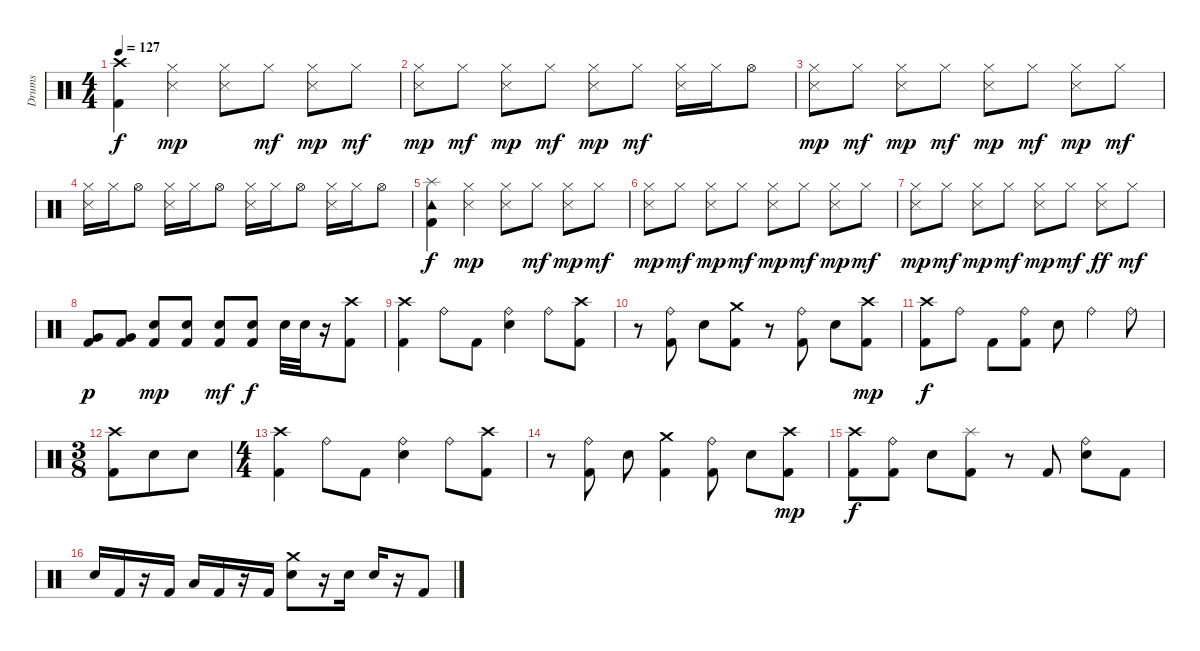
\track ("Drums" "Drums") {instrument percussion}
\staff {score}
\articulation defaults
\ts (4 4)
\tempo 127
\clef neutral
\ks c
("Crash high (hit)" "Kick (hit) 2").4{dy f} ("Snare (side stick) 3" "Hi-Hat (closed)").4{dy mp} ("Snare (side stick) 3" "Hi-Hat (closed)").8 "Hi-Hat (closed)".8{dy mf} ("Snare (side stick) 3" "Hi-Hat (closed)").8{dy mp} "Hi-Hat (closed)".8{dy mf} |
("Hi-Hat (closed)" "Snare (side stick) 3").8{dy mp} "Hi-Hat (closed)".8{dy mf} ("Snare (side stick) 3" "Hi-Hat (closed)").8{dy mp} "Hi-Hat (closed)".8{dy mf} ("Hi-Hat (closed)" "Snare (side stick) 3").8{dy mp} "Hi-Hat (closed)".8{dy mf} ("Snare (side stick) 3" "Hi-Hat (closed)").16 "Hi-Hat (closed)".16 "Hi-Hat (open)".8 |
("Snare (side stick) 3" "Hi-Hat (closed)").8{dy mp} "Hi-Hat (closed)".8{dy mf} ("Snare (side stick) 3" "Hi-Hat (closed)").8{dy mp} "Hi-Hat (closed)".8{dy mf} ("Snare (side stick) 3" "Hi-Hat (closed)").8{dy mp} "Hi-Hat (closed)".8{dy mf} ("Snare (side stick) 3" "Hi-Hat (closed)").8{dy mp} "Hi-Hat (closed)".8{dy mf} |
("Hi-Hat (closed)" "Snare (side stick) 3").16 "Hi-Hat (closed)".16 "Hi-Hat (open)".8 ("Hi-Hat (closed)" "Snare (side stick) 3").16 "Hi-Hat (closed)".16 "Hi-Hat (open)".8 ("Hi-Hat (closed)" "Snare (side stick) 3").16 "Hi-Hat (closed)".16 "Hi-Hat (open)".8 ("Hi-Hat (closed)" "Snare (side stick) 3").16 "Hi-Hat (closed)".16 "Hi-Hat (open)".8 |
("Tambourine (hit)" "Splash (hit)" "Kick (hit) 2").4{dy f} ("Snare (side stick) 3" "Hi-Hat (closed)").4{dy mp} ("Snare (side stick) 3" "Hi-Hat (closed)").8 "Hi-Hat (closed)".8{dy mf} ("Snare (side stick) 3" "Hi-Hat (closed)").8{dy mp} "Hi-Hat (closed)".8{dy mf} |
("Hi-Hat (closed)" "Snare (side stick) 3").8{dy mp} "Hi-Hat (closed)".8{dy mf} ("Snare (side stick) 3" "Hi-Hat (closed)").8{dy mp} "Hi-Hat (closed)".8{dy mf} ("Hi-Hat (closed)" "Snare (side stick) 3").8{dy mp} "Hi-Hat (closed)".8{dy mf} ("Snare (side stick) 3" "Hi-Hat (closed)").8{dy mp} "Hi-Hat (closed)".8{dy mf} |
("Snare (side stick) 3" "Hi-Hat (closed)").8{dy mp} "Hi-Hat (closed)".8{dy mf} ("Snare (side stick) 3" "Hi-Hat (closed)").8{dy mp} "Hi-Hat (closed)".8{dy mf} ("Snare (side stick) 3" "Hi-Hat (closed)").8{dy mp} "Hi-Hat (closed)".8{dy mf} ("Snare (side stick) 3" "Hi-Hat (closed)").8{dy ff} "Hi-Hat (closed)".8{dy mf} |
("Kick (hit) 2" "Very Low Tom (hit)").8{dy p} ("Very Low Tom (hit)" "Kick (hit) 2").8 ("Electric Snare (hit)" "Kick (hit) 2").8{dy mp} ("Electric Snare (hit)" "Kick (hit) 2").8 ("Electric Snare (hit)" "Kick (hit) 2").8{dy mf} ("Electric Snare (hit)" "Kick (hit) 2").8{dy f} "Electric Snare (hit)".32 "Electric Snare (hit)".32 r.16 ("Crash high (hit)" "Kick (hit) 2").8 |
("Kick (hit) 2" "Crash high (hit)").4 "Ride (bell)".8 "Kick (hit) 2".8 ("Ride (bell)" "Electric Snare (hit)").4 "Ride (bell)".8 ("Kick (hit) 2" "Crash high (hit)").8 |
r.8 ("Kick (hit) 2" "Ride (bell)").8 "Electric Snare (hit)".8 ("Kick (hit) 2" "Crash medium (hit)").8 r.8 ("Kick (hit) 2" "Ride (bell)").8 "Electric Snare (hit)".8 ("Kick (hit) 2" "Crash high (hit)").8{dy mp} |
("Crash high (hit)" "Kick (hit) 2").8{dy f} "Ride (bell)".8 "Kick (hit) 2".8 ("Kick (hit) 2" "Ride (bell)").8 "Electric Snare (hit)".8 "Ride (bell)".4 "Ride (bell)".8 |
\ts (3 8)
("Crash high (hit)" "Kick (hit) 2").8 "Electric Snare (hit)".8 "Electric Snare (hit)".8 |
\ts (4 4)
("Crash high (hit)" "Kick (hit) 2").4 "Ride (bell)".8 "Kick (hit) 2".8 ("Ride (bell)" "Electric Snare (hit)").4 "Ride (bell)".8 ("Kick (hit) 2" "Crash high (hit)").8 |
r.8 ("Kick (hit) 2" "Ride (bell)").8 "Electric Snare (hit)".8 ("Kick (hit) 2" "Crash medium (hit)").4 ("Kick (hit) 2" "Ride (bell)").8 "Electric Snare (hit)".8 ("Kick (hit) 2" "Crash high (hit)").8{dy mp} |
("Kick (hit) 2" "Crash high (hit)").8{dy f} ("Kick (hit) 2" "Ride (bell)").8 "Electric Snare (hit)".8 ("Kick (hit) 2" "Splash (hit)").8 r.8 "Kick (hit) 2".8 ("Electric Snare (hit)" "Ride (bell)").8 "Kick (hit) 2".8 |
"Electric Snare (hit)".16 "Kick (hit) 2".16 r.16 "Kick (hit) 2".16 "Low Tom (hit)".16 "Kick (hit) 2".16 r.16 "Kick (hit) 2".16 ("Electric Snare (hit)" "Crash medium (hit)").8 r.16 "Electric Snare (hit)".16 "Electric Snare (hit)".16 r.16 "Kick (hit) 2".8
